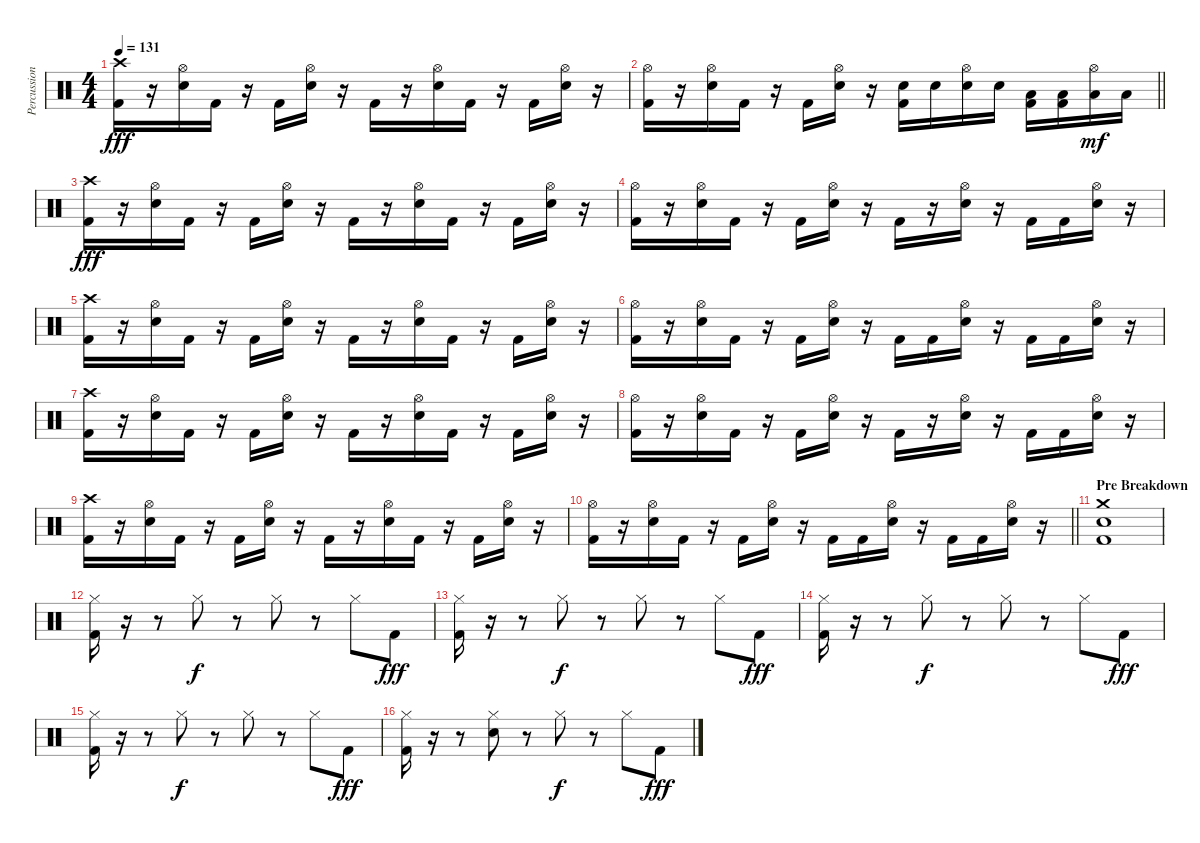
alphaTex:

\track ("Percussion" "Percussion") {instrument percussion}
\staff {score}
\articulation defaults
\ts (4 4)
\tempo 131
\clef neutral
\ks c
("Crash high (hit)" "Kick (hit) 2").16{dy fff} r.16 ("Hi-Hat (open)" "Snare (hit) 2").16 "Kick (hit) 2".16 r.16 "Kick (hit) 2".16 ("Hi-Hat (open)" "Snare (hit) 2").16 r.16 "Kick (hit) 2".16 r.16 ("Hi-Hat (open)" "Snare (hit) 2").16 "Kick (hit) 2".16 r.16 "Kick (hit) 2".16 ("Hi-Hat (open)" "Snare (hit) 2").16 r.16 |
\barLineRight lightlight
("Hi-Hat (open)" "Kick (hit) 2").16 r.16 ("Hi-Hat (open)" "Snare (hit) 2").16 "Kick (hit) 2".16 r.16 "Kick (hit) 2".16 ("Hi-Hat (open)" "Snare (hit) 2").16 r.16 ("Snare (hit) 2" "Kick (hit) 2").16 "Snare (hit) 2".16 ("Hi-Hat (open)" "Snare (hit) 2").16 "Snare (hit) 2".16 ("Low Tom (hit)" "Kick (hit) 2").16 ("Low Tom (hit)" "Kick (hit) 2").16 ("Hi-Hat (open)" "Low Tom (hit)").16{dy mf} "Low Tom (hit)".16 |
("Crash high (hit)" "Kick (hit) 2").16{dy fff} r.16 ("Hi-Hat (open)" "Snare (hit) 2").16 "Kick (hit) 2".16 r.16 "Kick (hit) 2".16 ("Hi-Hat (open)" "Snare (hit) 2").16 r.16 "Kick (hit) 2".16 r.16 ("Hi-Hat (open)" "Snare (hit) 2").16 "Kick (hit) 2".16 r.16 "Kick (hit) 2".16 ("Hi-Hat (open)" "Snare (hit) 2").16 r.16 |
("Hi-Hat (open)" "Kick (hit) 2").16 r.16 ("Hi-Hat (open)" "Snare (hit) 2").16 "Kick (hit) 2".16 r.16 "Kick (hit) 2".16 ("Hi-Hat (open)" "Snare (hit) 2").16 r.16 "Kick (hit) 2".16 r.16 ("Hi-Hat (open)" "Snare (hit) 2").16 r.16 "Kick (hit) 2".16 "Kick (hit) 2".16 ("Hi-Hat (open)" "Snare (hit) 2").16 r.16 |
("Crash high (hit)" "Kick (hit) 2").16 r.16 ("Hi-Hat (open)" "Snare (hit) 2").16 "Kick (hit) 2".16 r.16 "Kick (hit) 2".16 ("Hi-Hat (open)" "Snare (hit) 2").16 r.16 "Kick (hit) 2".16 r.16 ("Hi-Hat (open)" "Snare (hit) 2").16 "Kick (hit) 2".16 r.16 "Kick (hit) 2".16 ("Hi-Hat (open)" "Snare (hit) 2").16 r.16 |
("Hi-Hat (open)" "Kick (hit) 2").16 r.16 ("Hi-Hat (open)" "Snare (hit) 2").16 "Kick (hit) 2".16 r.16 "Kick (hit) 2".16 ("Hi-Hat (open)" "Snare (hit) 2").16 r.16 "Kick (hit) 2".16 "Kick (hit) 2".16 ("Hi-Hat (open)" "Snare (hit) 2").16 r.16 "Kick (hit) 2".16 "Kick (hit) 2".16 ("Hi-Hat (open)" "Snare (hit) 2").16 r.16 |
("Crash high (hit)" "Kick (hit) 2").16 r.16 ("Hi-Hat (open)" "Snare (hit) 2").16 "Kick (hit) 2".16 r.16 "Kick (hit) 2".16 ("Hi-Hat (open)" "Snare (hit) 2").16 r.16 "Kick (hit) 2".16 r.16 ("Hi-Hat (open)" "Snare (hit) 2").16 "Kick (hit) 2".16 r.16 "Kick (hit) 2".16 ("Hi-Hat (open)" "Snare (hit) 2").16 r.16 |
("Hi-Hat (open)" "Kick (hit) 2").16 r.16 ("Hi-Hat (open)" "Snare (hit) 2").16 "Kick (hit) 2".16 r.16 "Kick (hit) 2".16 ("Hi-Hat (open)" "Snare (hit) 2").16 r.16 "Kick (hit) 2".16 r.16 ("Hi-Hat (open)" "Snare (hit) 2").16 r.16 "Kick (hit) 2".16 "Kick (hit) 2".16 ("Hi-Hat (open)" "Snare (hit) 2").16 r.16 |
("Crash high (hit)" "Kick (hit) 2").16 r.16 ("Hi-Hat (open)" "Snare (hit) 2").16 "Kick (hit) 2".16 r.16 "Kick (hit) 2".16 ("Hi-Hat (open)" "Snare (hit) 2").16 r.16 "Kick (hit) 2".16 r.16 ("Hi-Hat (open)" "Snare (hit) 2").16 "Kick (hit) 2".16 r.16 "Kick (hit) 2".16 ("Hi-Hat (open)" "Snare (hit) 2").16 r.16 |
\barLineRight lightlight
("Hi-Hat (open)" "Kick (hit) 2").16 r.16 ("Hi-Hat (open)" "Snare (hit) 2").16 "Kick (hit) 2".16 r.16 "Kick (hit) 2".16 ("Hi-Hat (open)" "Snare (hit) 2").16 r.16 "Kick (hit) 2".16 "Kick (hit) 2".16 ("Hi-Hat (open)" "Snare (hit) 2").16 r.16 "Kick (hit) 2".16 "Kick (hit) 2".16 ("Hi-Hat (open)" "Snare (hit) 2").16 r.16 |
\section ("" "Pre Breakdown")
("Crash medium (hit)" "Snare (hit) 2" "Kick (hit) 2").1 |
("Hi-Hat (closed)" "Kick (hit) 2").16 r.16 r.8 "Hi-Hat (closed)".8{dy f} r.8 "Hi-Hat (closed)".8 r.8 "Hi-Hat (closed)".8 "Kick (hit) 2".8{dy fff} |
("Hi-Hat (closed)" "Kick (hit) 2").16 r.16 r.8 "Hi-Hat (closed)".8{dy f} r.8 "Hi-Hat (closed)".8 r.8 "Hi-Hat (closed)".8 "Kick (hit) 2".8{dy fff} |
("Hi-Hat (closed)" "Kick (hit) 2").16 r.16 r.8 "Hi-Hat (closed)".8{dy f} r.8 "Hi-Hat (closed)".8 r.8 "Hi-Hat (closed)".8 "Kick (hit) 2".8{dy fff} |
("Hi-Hat (closed)" "Kick (hit) 2").16 r.16 r.8 "Hi-Hat (closed)".8{dy f} r.8 "Hi-Hat (closed)".8 r.8 "Hi-Hat (closed)".8 "Kick (hit) 2".8{dy fff} |
("Hi-Hat (closed)" "Kick (hit) 2").16 r.16 r.8 ("Hi-Hat (closed)" "Snare (hit) 2").8 r.8 "Hi-Hat (closed)".8{dy f} r.8 "Hi-Hat (closed)".8 "Kick (hit) 2".8{dy fff}
